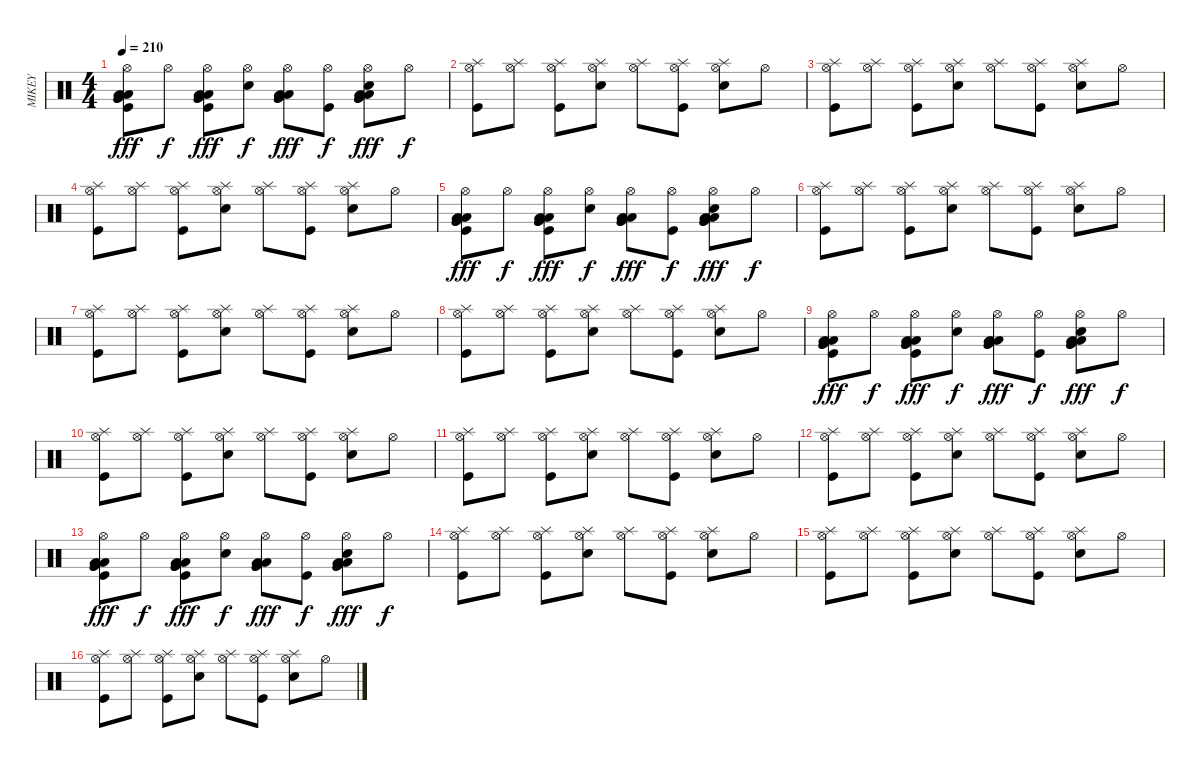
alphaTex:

\track ("MIKEY" "MIKEY") {instrument percussion}
\staff {score}
\articulation defaults
\ts (4 4)
\tempo 210
\clef neutral
\ks c
("Low Tom (hit)" "Very Low Tom (hit)" "Low Tom (hit)" "Very Low Tom (hit)" "Hi-Hat (open)" "Kick (hit)").8{dy fff} "Hi-Hat (open)".8{dy f} ("Low Tom (hit)" "Very Low Tom (hit)" "Low Tom (hit)" "Very Low Tom (hit)" "Hi-Hat (open)" "Kick (hit)").8{dy fff} ("Hi-Hat (open)" "Snare (hit) 2").8{dy f} ("Low Tom (hit)" "Very Low Tom (hit)" "Low Tom (hit)" "Very Low Tom (hit)" "Hi-Hat (open)").8{dy fff} ("Hi-Hat (open)" "Kick (hit)").8{dy f} ("Low Tom (hit)" "Very Low Tom (hit)" "Low Tom (hit)" "Very Low Tom (hit)" "Hi-Hat (open)" "Snare (hit) 2").8{dy fff} "Hi-Hat (open)".8{dy f} |
("Splash (hit)" "Hi-Hat (open)" "Kick (hit)").8 ("Splash (hit)" "Hi-Hat (open)").8 ("Splash (hit)" "Hi-Hat (open)" "Kick (hit)").8 ("Splash (hit)" "Hi-Hat (open)" "Snare (hit) 2").8 ("Splash (hit)" "Hi-Hat (open)").8 ("Splash (hit)" "Hi-Hat (open)" "Kick (hit)").8 ("Splash (hit)" "Hi-Hat (open)" "Snare (hit) 2").8 "Hi-Hat (open)".8 |
("Splash (hit)" "Hi-Hat (open)" "Kick (hit)").8 ("Splash (hit)" "Hi-Hat (open)").8 ("Splash (hit)" "Hi-Hat (open)" "Kick (hit)").8 ("Splash (hit)" "Hi-Hat (open)" "Snare (hit) 2").8 ("Splash (hit)" "Hi-Hat (open)").8 ("Splash (hit)" "Hi-Hat (open)" "Kick (hit)").8 ("Splash (hit)" "Hi-Hat (open)" "Snare (hit) 2").8 "Hi-Hat (open)".8 |
("Splash (hit)" "Hi-Hat (open)" "Kick (hit)").8 ("Splash (hit)" "Hi-Hat (open)").8 ("Splash (hit)" "Hi-Hat (open)" "Kick (hit)").8 ("Splash (hit)" "Hi-Hat (open)" "Snare (hit) 2").8 ("Splash (hit)" "Hi-Hat (open)").8 ("Splash (hit)" "Hi-Hat (open)" "Kick (hit)").8 ("Splash (hit)" "Hi-Hat (open)" "Snare (hit) 2").8 "Hi-Hat (open)".8 |
("Low Tom (hit)" "Very Low Tom (hit)" "Low Tom (hit)" "Very Low Tom (hit)" "Hi-Hat (open)" "Kick (hit)").8{dy fff} "Hi-Hat (open)".8{dy f} ("Low Tom (hit)" "Very Low Tom (hit)" "Low Tom (hit)" "Very Low Tom (hit)" "Hi-Hat (open)" "Kick (hit)").8{dy fff} ("Hi-Hat (open)" "Snare (hit) 2").8{dy f} ("Low Tom (hit)" "Very Low Tom (hit)" "Low Tom (hit)" "Very Low Tom (hit)" "Hi-Hat (open)").8{dy fff} ("Hi-Hat (open)" "Kick (hit)").8{dy f} ("Low Tom (hit)" "Very Low Tom (hit)" "Low Tom (hit)" "Very Low Tom (hit)" "Hi-Hat (open)" "Snare (hit) 2").8{dy fff} "Hi-Hat (open)".8{dy f} |
("Splash (hit)" "Hi-Hat (open)" "Kick (hit)").8 ("Splash (hit)" "Hi-Hat (open)").8 ("Splash (hit)" "Hi-Hat (open)" "Kick (hit)").8 ("Splash (hit)" "Hi-Hat (open)" "Snare (hit) 2").8 ("Splash (hit)" "Hi-Hat (open)").8 ("Splash (hit)" "Hi-Hat (open)" "Kick (hit)").8 ("Splash (hit)" "Hi-Hat (open)" "Snare (hit) 2").8 "Hi-Hat (open)".8 |
("Splash (hit)" "Hi-Hat (open)" "Kick (hit)").8 ("Splash (hit)" "Hi-Hat (open)").8 ("Splash (hit)" "Hi-Hat (open)" "Kick (hit)").8 ("Splash (hit)" "Hi-Hat (open)" "Snare (hit) 2").8 ("Splash (hit)" "Hi-Hat (open)").8 ("Splash (hit)" "Hi-Hat (open)" "Kick (hit)").8 ("Splash (hit)" "Hi-Hat (open)" "Snare (hit) 2").8 "Hi-Hat (open)".8 |
("Splash (hit)" "Hi-Hat (open)" "Kick (hit)").8 ("Splash (hit)" "Hi-Hat (open)").8 ("Splash (hit)" "Hi-Hat (open)" "Kick (hit)").8 ("Splash (hit)" "Hi-Hat (open)" "Snare (hit) 2").8 ("Splash (hit)" "Hi-Hat (open)").8 ("Splash (hit)" "Hi-Hat (open)" "Kick (hit)").8 ("Splash (hit)" "Hi-Hat (open)" "Snare (hit) 2").8 "Hi-Hat (open)".8 |
("Low Tom (hit)" "Very Low Tom (hit)" "Low Tom (hit)" "Very Low Tom (hit)" "Hi-Hat (open)" "Kick (hit)").8{dy fff} "Hi-Hat (open)".8{dy f} ("Low Tom (hit)" "Very Low Tom (hit)" "Low Tom (hit)" "Very Low Tom (hit)" "Hi-Hat (open)" "Kick (hit)").8{dy fff} ("Hi-Hat (open)" "Snare (hit) 2").8{dy f} ("Low Tom (hit)" "Very Low Tom (hit)" "Low Tom (hit)" "Very Low Tom (hit)" "Hi-Hat (open)").8{dy fff} ("Hi-Hat (open)" "Kick (hit)").8{dy f} ("Low Tom (hit)" "Very Low Tom (hit)" "Low Tom (hit)" "Very Low Tom (hit)" "Hi-Hat (open)" "Snare (hit) 2").8{dy fff} "Hi-Hat (open)".8{dy f} |
("Splash (hit)" "Hi-Hat (open)" "Kick (hit)").8 ("Splash (hit)" "Hi-Hat (open)").8 ("Splash (hit)" "Hi-Hat (open)" "Kick (hit)").8 ("Splash (hit)" "Hi-Hat (open)" "Snare (hit) 2").8 ("Splash (hit)" "Hi-Hat (open)").8 ("Splash (hit)" "Hi-Hat (open)" "Kick (hit)").8 ("Splash (hit)" "Hi-Hat (open)" "Snare (hit) 2").8 "Hi-Hat (open)".8 |
("Splash (hit)" "Hi-Hat (open)" "Kick (hit)").8 ("Splash (hit)" "Hi-Hat (open)").8 ("Splash (hit)" "Hi-Hat (open)" "Kick (hit)").8 ("Splash (hit)" "Hi-Hat (open)" "Snare (hit) 2").8 ("Splash (hit)" "Hi-Hat (open)").8 ("Splash (hit)" "Hi-Hat (open)" "Kick (hit)").8 ("Splash (hit)" "Hi-Hat (open)" "Snare (hit) 2").8 "Hi-Hat (open)".8 |
("Splash (hit)" "Hi-Hat (open)" "Kick (hit)").8 ("Splash (hit)" "Hi-Hat (open)").8 ("Splash (hit)" "Hi-Hat (open)" "Kick (hit)").8 ("Splash (hit)" "Hi-Hat (open)" "Snare (hit) 2").8 ("Splash (hit)" "Hi-Hat (open)").8 ("Splash (hit)" "Hi-Hat (open)" "Kick (hit)").8 ("Splash (hit)" "Hi-Hat (open)" "Snare (hit) 2").8 "Hi-Hat (open)".8 |
("Low Tom (hit)" "Very Low Tom (hit)" "Low Tom (hit)" "Very Low Tom (hit)" "Hi-Hat (open)" "Kick (hit)").8{dy fff} "Hi-Hat (open)".8{dy f} ("Low Tom (hit)" "Very Low Tom (hit)" "Low Tom (hit)" "Very Low Tom (hit)" "Hi-Hat (open)" "Kick (hit)").8{dy fff} ("Hi-Hat (open)" "Snare (hit) 2").8{dy f} ("Low Tom (hit)" "Very Low Tom (hit)" "Low Tom (hit)" "Very Low Tom (hit)" "Hi-Hat (open)").8{dy fff} ("Hi-Hat (open)" "Kick (hit)").8{dy f} ("Low Tom (hit)" "Very Low Tom (hit)" "Low Tom (hit)" "Very Low Tom (hit)" "Hi-Hat (open)" "Snare (hit) 2").8{dy fff} "Hi-Hat (open)".8{dy f} |
("Splash (hit)" "Hi-Hat (open)" "Kick (hit)").8 ("Splash (hit)" "Hi-Hat (open)").8 ("Splash (hit)" "Hi-Hat (open)" "Kick (hit)").8 ("Splash (hit)" "Hi-Hat (open)" "Snare (hit) 2").8 ("Splash (hit)" "Hi-Hat (open)").8 ("Splash (hit)" "Hi-Hat (open)" "Kick (hit)").8 ("Splash (hit)" "Hi-Hat (open)" "Snare (hit) 2").8 "Hi-Hat (open)".8 |
("Splash (hit)" "Hi-Hat (open)" "Kick (hit)").8 ("Splash (hit)" "Hi-Hat (open)").8 ("Splash (hit)" "Hi-Hat (open)" "Kick (hit)").8 ("Splash (hit)" "Hi-Hat (open)" "Snare (hit) 2").8 ("Splash (hit)" "Hi-Hat (open)").8 ("Splash (hit)" "Hi-Hat (open)" "Kick (hit)").8 ("Splash (hit)" "Hi-Hat (open)" "Snare (hit) 2").8 "Hi-Hat (open)".8 |
("Splash (hit)" "Hi-Hat (open)" "Kick (hit)").8 ("Splash (hit)" "Hi-Hat (open)").8 ("Splash (hit)" "Hi-Hat (open)" "Kick (hit)").8 ("Splash (hit)" "Hi-Hat (open)" "Snare (hit) 2").8 ("Splash (hit)" "Hi-Hat (open)").8 ("Splash (hit)" "Hi-Hat (open)" "Kick (hit)").8 ("Splash (hit)" "Hi-Hat (open)" "Snare (hit) 2").8 "Hi-Hat (open)".8
